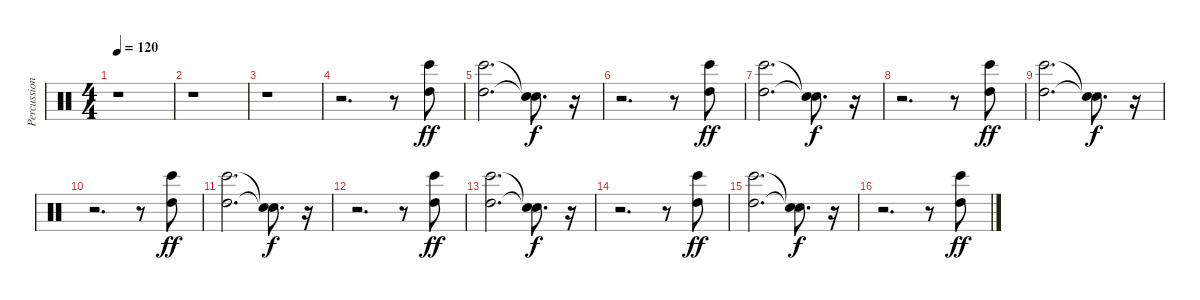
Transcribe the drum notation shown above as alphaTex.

\track ("Percussions2" "Percussion") {instrument percussion}
\staff {score}
\articulation defaults
\ts (4 4)
\tempo 120
\clef neutral
\ks c
r.1{dy ff} |
r.1 |
r.1 |
r.2{d} r.8 ("High Tom (hit)" "Bongo High (hit)").8 |
("High Tom (hit)" "Bongo High (hit)").2{d} ("Snare (hit)"{t} "Snare (hit)"{t}).8{d dy f} r.16 |
r.2{d} r.8 ("High Tom (hit)" "Bongo High (hit)").8{dy ff} |
("High Tom (hit)" "Bongo High (hit)").2{d} ("Snare (hit)"{t} "Snare (hit)"{t}).8{d dy f} r.16 |
r.2{d} r.8 ("High Tom (hit)" "Bongo High (hit)").8{dy ff} |
("High Tom (hit)" "Bongo High (hit)").2{d} ("Snare (hit)"{t} "Snare (hit)"{t}).8{d dy f} r.16 |
r.2{d} r.8 ("High Tom (hit)" "Bongo High (hit)").8{dy ff} |
("High Tom (hit)" "Bongo High (hit)").2{d} ("Snare (hit)"{t} "Snare (hit)"{t}).8{d dy f} r.16 |
r.2{d} r.8 ("High Tom (hit)" "Bongo High (hit)").8{dy ff} |
("High Tom (hit)" "Bongo High (hit)").2{d} ("Snare (hit)"{t} "Snare (hit)"{t}).8{d dy f} r.16 |
r.2{d} r.8 ("High Tom (hit)" "Bongo High (hit)").8{dy ff} |
("High Tom (hit)" "Bongo High (hit)").2{d} ("Snare (hit)"{t} "Snare (hit)"{t}).8{d dy f} r.16 |
r.2{d} r.8 ("High Tom (hit)" "Bongo High (hit)").8{dy ff}
